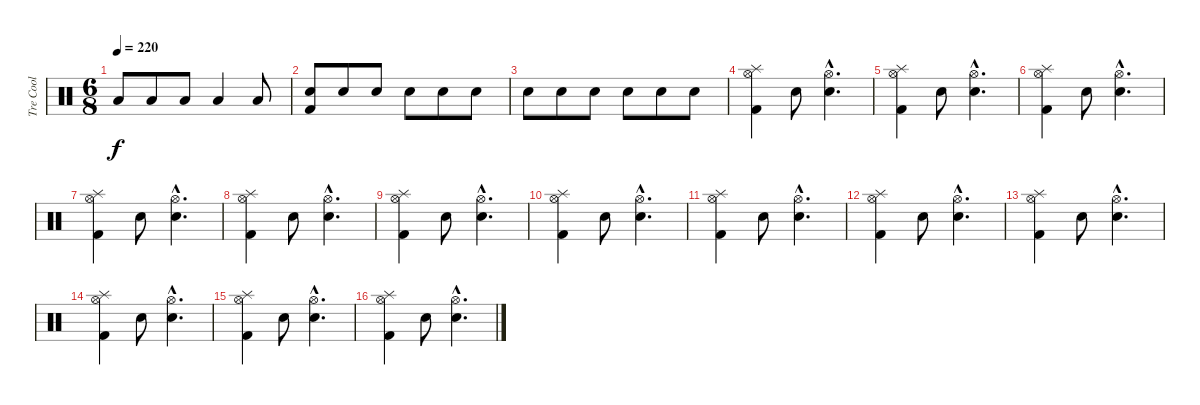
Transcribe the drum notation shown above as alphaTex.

\track ("Tre Cool" "Tre Cool") {instrument percussion}
\staff {score}
\articulation defaults
\ts (6 8)
\tempo 220
\clef neutral
\ks c "Low Floor Tom (hit)".8{dy f} "Low Floor Tom (hit)".8 "Low Floor Tom (hit)".8 "Low Tom (hit)".4 "Low Tom (hit)".8
|
("Electric Snare (hit)" "Kick (hit) 2").8 "Electric Snare (hit)".8 "Electric Snare (hit)".8 "Electric Snare (hit)".8 "Electric Snare (hit)".8 "Electric Snare (hit)".8 |
"Electric Snare (hit)".8 "Electric Snare (hit)".8 "Electric Snare (hit)".8 "Electric Snare (hit)".8 "Electric Snare (hit)".8 "Electric Snare (hit)".8 |
("Hi-Hat (open)" "Splash (hit)" "Kick (hit) 2").4 "Snare (hit) 2".8 ("Electric Snare (hit)"{hac} "Hi-Hat (open)"{hac}).4{d} |
("Hi-Hat (open)" "Splash (hit)" "Kick (hit) 2").4 "Snare (hit) 2".8 ("Electric Snare (hit)"{hac} "Hi-Hat (open)"{hac}).4{d} |
("Hi-Hat (open)" "Splash (hit)" "Kick (hit) 2").4 "Snare (hit) 2".8 ("Electric Snare (hit)"{hac} "Hi-Hat (open)"{hac}).4{d} |
("Hi-Hat (open)" "Splash (hit)" "Kick (hit) 2").4 "Snare (hit) 2".8 ("Electric Snare (hit)"{hac} "Hi-Hat (open)"{hac}).4{d} |
("Hi-Hat (open)" "Splash (hit)" "Kick (hit) 2").4 "Snare (hit) 2".8 ("Electric Snare (hit)"{hac} "Hi-Hat (open)"{hac}).4{d} |
("Hi-Hat (open)" "Splash (hit)" "Kick (hit) 2").4 "Snare (hit) 2".8 ("Electric Snare (hit)"{hac} "Hi-Hat (open)"{hac}).4{d} |
("Hi-Hat (open)" "Splash (hit)" "Kick (hit) 2").4 "Snare (hit) 2".8 ("Electric Snare (hit)"{hac} "Hi-Hat (open)"{hac}).4{d} |
("Hi-Hat (open)" "Splash (hit)" "Kick (hit) 2").4 "Snare (hit) 2".8 ("Electric Snare (hit)"{hac} "Hi-Hat (open)"{hac}).4{d} |
("Hi-Hat (open)" "Splash (hit)" "Kick (hit) 2").4 "Snare (hit) 2".8 ("Electric Snare (hit)"{hac} "Hi-Hat (open)"{hac}).4{d} |
("Hi-Hat (open)" "Splash (hit)" "Kick (hit) 2").4 "Snare (hit) 2".8 ("Electric Snare (hit)"{hac} "Hi-Hat (open)"{hac}).4{d} |
("Hi-Hat (open)" "Splash (hit)" "Kick (hit) 2").4 "Snare (hit) 2".8 ("Electric Snare (hit)"{hac} "Hi-Hat (open)"{hac}).4{d} |
("Hi-Hat (open)" "Splash (hit)" "Kick (hit) 2").4 "Snare (hit) 2".8 ("Electric Snare (hit)"{hac} "Hi-Hat (open)"{hac}).4{d} |
("Hi-Hat (open)" "Splash (hit)" "Kick (hit) 2").4 "Snare (hit) 2".8 ("Electric Snare (hit)"{hac} "Hi-Hat (open)"{hac}).4{d}
